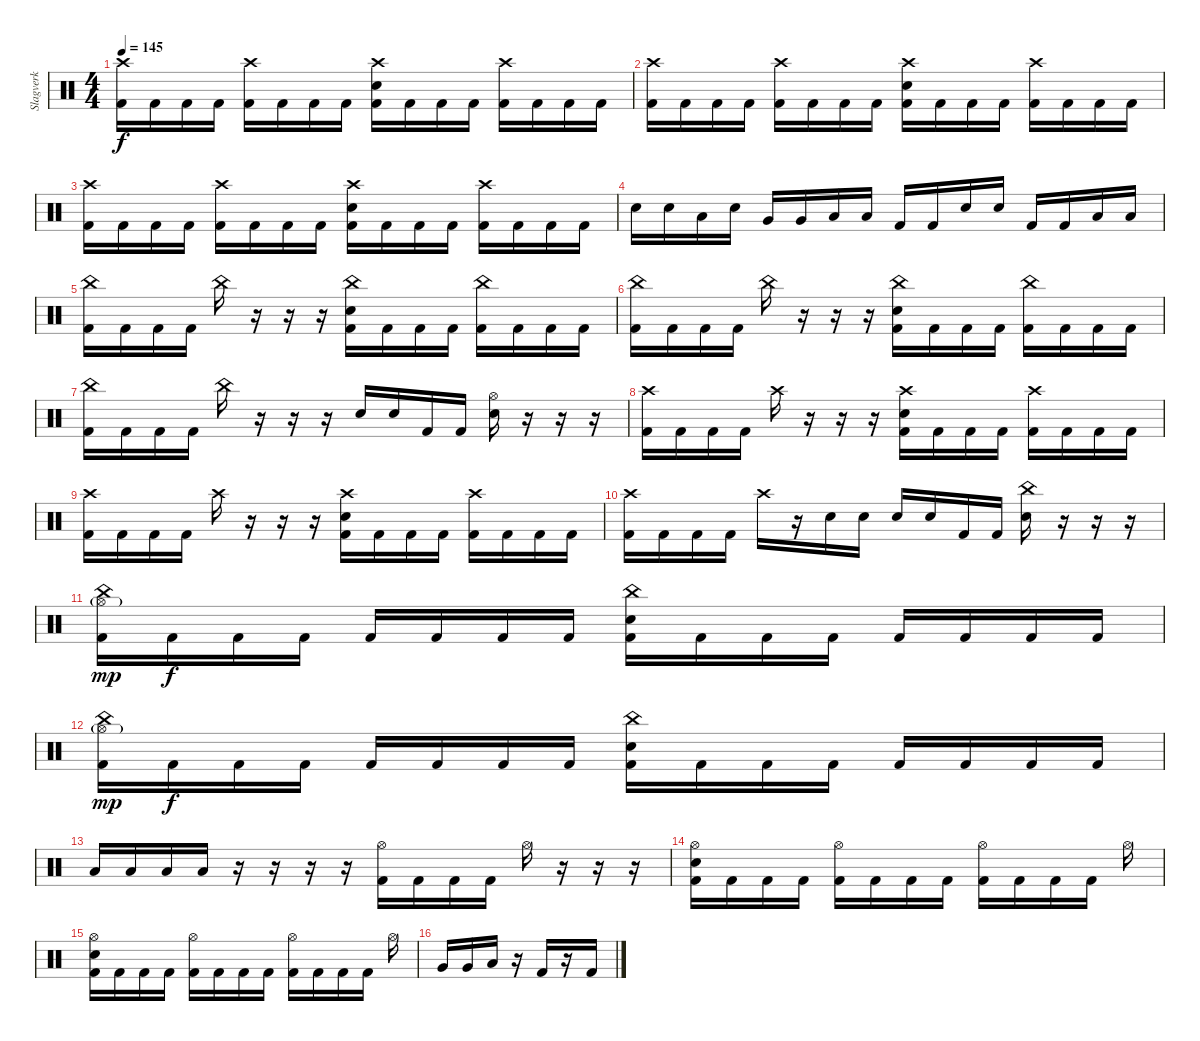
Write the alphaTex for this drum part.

\track ("Slagverk" "Slagverk") {instrument percussion}
\staff {score}
\articulation defaults
\ts (4 4)
\tempo 145
\clef neutral
\ks c
("Crash high (hit)" "Kick (hit) 2").16{dy f} "Kick (hit) 2".16 "Kick (hit) 2".16 "Kick (hit) 2".16 ("Crash high (hit)" "Kick (hit) 2").16 "Kick (hit) 2".16 "Kick (hit) 2".16 "Kick (hit) 2".16 ("Crash high (hit)" "Electric Snare (hit)" "Kick (hit) 2").16 "Kick (hit) 2".16 "Kick (hit) 2".16 "Kick (hit) 2".16 ("Crash high (hit)" "Kick (hit) 2").16 "Kick (hit) 2".16 "Kick (hit) 2".16 "Kick (hit) 2".16 |
("Crash high (hit)" "Kick (hit) 2").16 "Kick (hit) 2".16 "Kick (hit) 2".16 "Kick (hit) 2".16 ("Crash high (hit)" "Kick (hit) 2").16 "Kick (hit) 2".16 "Kick (hit) 2".16 "Kick (hit) 2".16 ("Crash high (hit)" "Electric Snare (hit)" "Kick (hit) 2").16 "Kick (hit) 2".16 "Kick (hit) 2".16 "Kick (hit) 2".16 ("Crash high (hit)" "Kick (hit) 2").16 "Kick (hit) 2".16 "Kick (hit) 2".16 "Kick (hit) 2".16 |
("Crash high (hit)" "Kick (hit) 2").16 "Kick (hit) 2".16 "Kick (hit) 2".16 "Kick (hit) 2".16 ("Crash high (hit)" "Kick (hit) 2").16 "Kick (hit) 2".16 "Kick (hit) 2".16 "Kick (hit) 2".16 ("Crash high (hit)" "Electric Snare (hit)" "Kick (hit) 2").16 "Kick (hit) 2".16 "Kick (hit) 2".16 "Kick (hit) 2".16 ("Crash high (hit)" "Kick (hit) 2").16 "Kick (hit) 2".16 "Kick (hit) 2".16 "Kick (hit) 2".16 |
"Electric Snare (hit)".16 "Electric Snare (hit)".16 "Low Tom (hit)".16 "Electric Snare (hit)".16 "Very Low Tom (hit)".16 "Very Low Tom (hit)".16 "Low Floor Tom (hit)".16 "Low Floor Tom (hit)".16 "Kick (hit) 2".16 "Kick (hit) 2".16 "Electric Snare (hit)".16 "Electric Snare (hit)".16 "Kick (hit) 2".16 "Kick (hit) 2".16 "Low Tom (hit)".16 "Low Tom (hit)".16 |
("China (hit)" "Kick (hit) 2").16 "Kick (hit) 2".16 "Kick (hit) 2".16 "Kick (hit) 2".16 "China (hit)".16 r.16 r.16 r.16 ("China (hit)" "Kick (hit) 2" "Electric Snare (hit)").16 "Kick (hit) 2".16 "Kick (hit) 2".16 "Kick (hit) 2".16 ("China (hit)" "Kick (hit) 2").16 "Kick (hit) 2".16 "Kick (hit) 2".16 "Kick (hit) 2".16 |
("China (hit)" "Kick (hit) 2").16 "Kick (hit) 2".16 "Kick (hit) 2".16 "Kick (hit) 2".16 "China (hit)".16 r.16 r.16 r.16 ("China (hit)" "Kick (hit) 2" "Electric Snare (hit)").16 "Kick (hit) 2".16 "Kick (hit) 2".16 "Kick (hit) 2".16 ("China (hit)" "Kick (hit) 2").16 "Kick (hit) 2".16 "Kick (hit) 2".16 "Kick (hit) 2".16 |
("China (hit)" "Kick (hit) 2").16 "Kick (hit) 2".16 "Kick (hit) 2".16 "Kick (hit) 2".16 "China (hit)".16 r.16 r.16 r.16 "Electric Snare (hit)".16 "Electric Snare (hit)".16 "Kick (hit) 2".16 "Kick (hit) 2".16 ("Hi-Hat (open)" "Electric Snare (hit)").16 r.16 r.16 r.16 |
("Crash high (hit)" "Kick (hit) 2").16 "Kick (hit) 2".16 "Kick (hit) 2".16 "Kick (hit) 2".16 "Crash high (hit)".16 r.16 r.16 r.16 ("Crash high (hit)" "Kick (hit) 2" "Electric Snare (hit)").16 "Kick (hit) 2".16 "Kick (hit) 2".16 "Kick (hit) 2".16 ("Crash high (hit)" "Kick (hit) 2").16 "Kick (hit) 2".16 "Kick (hit) 2".16 "Kick (hit) 2".16 |
("Crash high (hit)" "Kick (hit) 2").16 "Kick (hit) 2".16 "Kick (hit) 2".16 "Kick (hit) 2".16 "Crash high (hit)".16 r.16 r.16 r.16 ("Crash high (hit)" "Kick (hit) 2" "Electric Snare (hit)").16 "Kick (hit) 2".16 "Kick (hit) 2".16 "Kick (hit) 2".16 ("Crash high (hit)" "Kick (hit) 2").16 "Kick (hit) 2".16 "Kick (hit) 2".16 "Kick (hit) 2".16 |
("Crash high (hit)" "Kick (hit) 2").16 "Kick (hit) 2".16 "Kick (hit) 2".16 "Kick (hit) 2".16 "Crash high (hit)".16 r.16 "Electric Snare (hit)".16 "Electric Snare (hit)".16 "Electric Snare (hit)".16 "Electric Snare (hit)".16 "Kick (hit) 2".16 "Kick (hit) 2".16 ("China (hit)" "Electric Snare (hit)").16 r.16 r.16 r.16 |
("China (hit)" "Kick (hit) 2" "Hi-Hat (open)"{g}).16{dy mp} "Kick (hit) 2".16{dy f} "Kick (hit) 2".16 "Kick (hit) 2".16 "Kick (hit) 2".16 "Kick (hit) 2".16 "Kick (hit) 2".16 "Kick (hit) 2".16 ("China (hit)" "Kick (hit) 2" "Electric Snare (hit)").16 "Kick (hit) 2".16 "Kick (hit) 2".16 "Kick (hit) 2".16 "Kick (hit) 2".16 "Kick (hit) 2".16 "Kick (hit) 2".16 "Kick (hit) 2".16 |
("China (hit)" "Kick (hit) 2" "Hi-Hat (open)"{g}).16{dy mp} "Kick (hit) 2".16{dy f} "Kick (hit) 2".16 "Kick (hit) 2".16 "Kick (hit) 2".16 "Kick (hit) 2".16 "Kick (hit) 2".16 "Kick (hit) 2".16 ("China (hit)" "Kick (hit) 2" "Electric Snare (hit)").16 "Kick (hit) 2".16 "Kick (hit) 2".16 "Kick (hit) 2".16 "Kick (hit) 2".16 "Kick (hit) 2".16 "Kick (hit) 2".16 "Kick (hit) 2".16 |
"Low Floor Tom (hit)".16 "Low Floor Tom (hit)".16 "Low Floor Tom (hit)".16 "Low Floor Tom (hit)".16 r.16 r.16 r.16 r.16 ("Hi-Hat (open)" "Kick (hit) 2").16 "Kick (hit) 2".16 "Kick (hit) 2".16 "Kick (hit) 2".16 "Hi-Hat (open)".16 r.16 r.16 r.16 |
("Hi-Hat (open)" "Kick (hit) 2" "Electric Snare (hit)").16 "Kick (hit) 2".16 "Kick (hit) 2".16 "Kick (hit) 2".16 ("Hi-Hat (open)" "Kick (hit) 2").16 "Kick (hit) 2".16 "Kick (hit) 2".16 "Kick (hit) 2".16 ("Hi-Hat (open)" "Kick (hit) 2").16 "Kick (hit) 2".16 "Kick (hit) 2".16 "Kick (hit) 2".16 "Hi-Hat (open)".16 |
("Hi-Hat (open)" "Kick (hit) 2" "Electric Snare (hit)").16 "Kick (hit) 2".16 "Kick (hit) 2".16 "Kick (hit) 2".16 ("Hi-Hat (open)" "Kick (hit) 2").16 "Kick (hit) 2".16 "Kick (hit) 2".16 "Kick (hit) 2".16 ("Hi-Hat (open)" "Kick (hit) 2").16 "Kick (hit) 2".16 "Kick (hit) 2".16 "Kick (hit) 2".16 "Hi-Hat (open)".16 |
"Very Low Tom (hit)".16 "Very Low Tom (hit)".16 "Low Floor Tom (hit)".16 r.16 "Kick (hit) 2".16 r.16 "Kick (hit) 2".16
